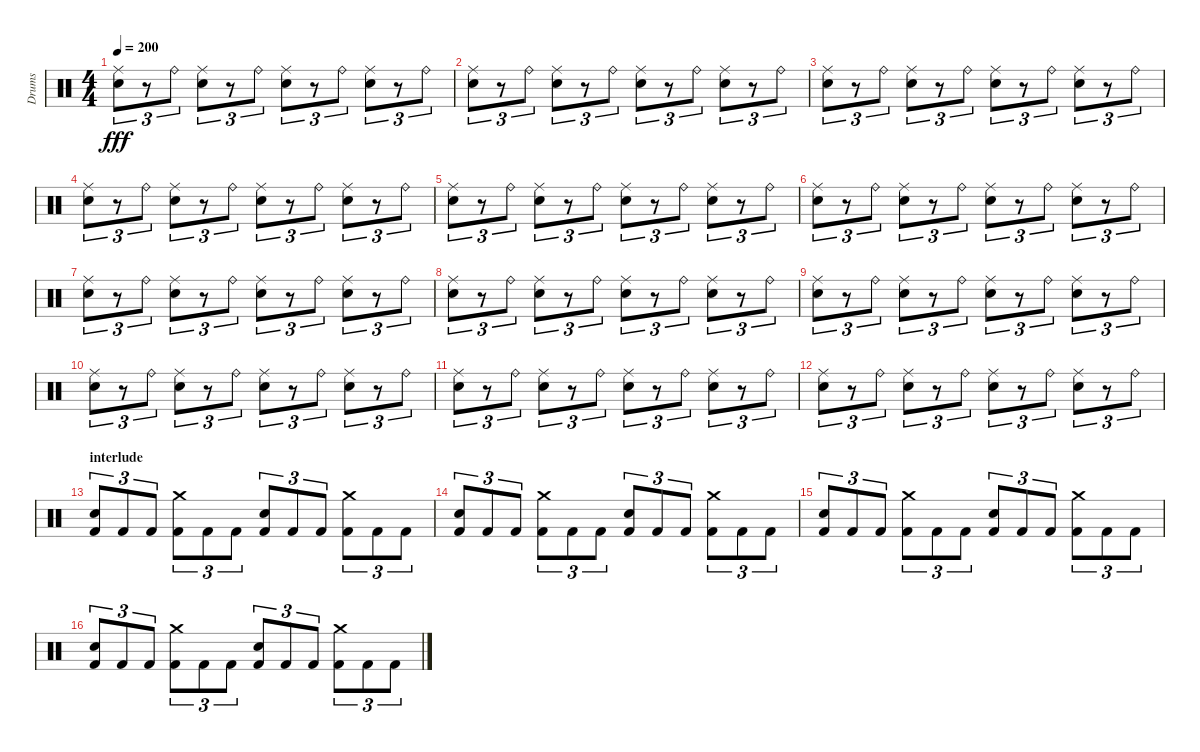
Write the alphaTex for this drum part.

\track ("Drums" "Drums") {instrument percussion}
\staff {score}
\articulation defaults
\ts (4 4)
\tempo 200
\clef neutral
\ks c
("Electric Snare (hit)" "Ride (middle)").8{tu (3 2) dy fff} r.8{tu (3 2)} "Ride (bell)".8{tu (3 2)} ("Electric Snare (hit)" "Ride (middle)").8{tu (3 2)} r.8{tu (3 2)} "Ride (bell)".8{tu (3 2)} ("Electric Snare (hit)" "Ride (middle)").8{tu (3 2)} r.8{tu (3 2)} "Ride (bell)".8{tu (3 2)} ("Electric Snare (hit)" "Ride (middle)").8{tu (3 2)} r.8{tu (3 2)} "Ride (bell)".8{tu (3 2)} |
("Electric Snare (hit)" "Ride (middle)").8{tu (3 2)} r.8{tu (3 2)} "Ride (bell)".8{tu (3 2)} ("Electric Snare (hit)" "Ride (middle)").8{tu (3 2)} r.8{tu (3 2)} "Ride (bell)".8{tu (3 2)} ("Electric Snare (hit)" "Ride (middle)").8{tu (3 2)} r.8{tu (3 2)} "Ride (bell)".8{tu (3 2)} ("Electric Snare (hit)" "Ride (middle)").8{tu (3 2)} r.8{tu (3 2)} "Ride (bell)".8{tu (3 2)} |
("Electric Snare (hit)" "Ride (middle)").8{tu (3 2)} r.8{tu (3 2)} "Ride (bell)".8{tu (3 2)} ("Electric Snare (hit)" "Ride (middle)").8{tu (3 2)} r.8{tu (3 2)} "Ride (bell)".8{tu (3 2)} ("Electric Snare (hit)" "Ride (middle)").8{tu (3 2)} r.8{tu (3 2)} "Ride (bell)".8{tu (3 2)} ("Electric Snare (hit)" "Ride (middle)").8{tu (3 2)} r.8{tu (3 2)} "Ride (bell)".8{tu (3 2)} |
("Electric Snare (hit)" "Ride (middle)").8{tu (3 2)} r.8{tu (3 2)} "Ride (bell)".8{tu (3 2)} ("Electric Snare (hit)" "Ride (middle)").8{tu (3 2)} r.8{tu (3 2)} "Ride (bell)".8{tu (3 2)} ("Electric Snare (hit)" "Ride (middle)").8{tu (3 2)} r.8{tu (3 2)} "Ride (bell)".8{tu (3 2)} ("Electric Snare (hit)" "Ride (middle)").8{tu (3 2)} r.8{tu (3 2)} "Ride (bell)".8{tu (3 2)} |
("Electric Snare (hit)" "Ride (middle)").8{tu (3 2)} r.8{tu (3 2)} "Ride (bell)".8{tu (3 2)} ("Electric Snare (hit)" "Ride (middle)").8{tu (3 2)} r.8{tu (3 2)} "Ride (bell)".8{tu (3 2)} ("Electric Snare (hit)" "Ride (middle)").8{tu (3 2)} r.8{tu (3 2)} "Ride (bell)".8{tu (3 2)} ("Electric Snare (hit)" "Ride (middle)").8{tu (3 2)} r.8{tu (3 2)} "Ride (bell)".8{tu (3 2)} |
("Electric Snare (hit)" "Ride (middle)").8{tu (3 2)} r.8{tu (3 2)} "Ride (bell)".8{tu (3 2)} ("Electric Snare (hit)" "Ride (middle)").8{tu (3 2)} r.8{tu (3 2)} "Ride (bell)".8{tu (3 2)} ("Electric Snare (hit)" "Ride (middle)").8{tu (3 2)} r.8{tu (3 2)} "Ride (bell)".8{tu (3 2)} ("Electric Snare (hit)" "Ride (middle)").8{tu (3 2)} r.8{tu (3 2)} "Ride (bell)".8{tu (3 2)} |
("Electric Snare (hit)" "Ride (middle)").8{tu (3 2)} r.8{tu (3 2)} "Ride (bell)".8{tu (3 2)} ("Electric Snare (hit)" "Ride (middle)").8{tu (3 2)} r.8{tu (3 2)} "Ride (bell)".8{tu (3 2)} ("Electric Snare (hit)" "Ride (middle)").8{tu (3 2)} r.8{tu (3 2)} "Ride (bell)".8{tu (3 2)} ("Electric Snare (hit)" "Ride (middle)").8{tu (3 2)} r.8{tu (3 2)} "Ride (bell)".8{tu (3 2)} |
("Electric Snare (hit)" "Ride (middle)").8{tu (3 2)} r.8{tu (3 2)} "Ride (bell)".8{tu (3 2)} ("Electric Snare (hit)" "Ride (middle)").8{tu (3 2)} r.8{tu (3 2)} "Ride (bell)".8{tu (3 2)} ("Electric Snare (hit)" "Ride (middle)").8{tu (3 2)} r.8{tu (3 2)} "Ride (bell)".8{tu (3 2)} ("Electric Snare (hit)" "Ride (middle)").8{tu (3 2)} r.8{tu (3 2)} "Ride (bell)".8{tu (3 2)} |
("Electric Snare (hit)" "Ride (middle)").8{tu (3 2)} r.8{tu (3 2)} "Ride (bell)".8{tu (3 2)} ("Electric Snare (hit)" "Ride (middle)").8{tu (3 2)} r.8{tu (3 2)} "Ride (bell)".8{tu (3 2)} ("Electric Snare (hit)" "Ride (middle)").8{tu (3 2)} r.8{tu (3 2)} "Ride (bell)".8{tu (3 2)} ("Electric Snare (hit)" "Ride (middle)").8{tu (3 2)} r.8{tu (3 2)} "Ride (bell)".8{tu (3 2)} |
("Electric Snare (hit)" "Ride (middle)").8{tu (3 2)} r.8{tu (3 2)} "Ride (bell)".8{tu (3 2)} ("Electric Snare (hit)" "Ride (middle)").8{tu (3 2)} r.8{tu (3 2)} "Ride (bell)".8{tu (3 2)} ("Electric Snare (hit)" "Ride (middle)").8{tu (3 2)} r.8{tu (3 2)} "Ride (bell)".8{tu (3 2)} ("Electric Snare (hit)" "Ride (middle)").8{tu (3 2)} r.8{tu (3 2)} "Ride (bell)".8{tu (3 2)} |
("Electric Snare (hit)" "Ride (middle)").8{tu (3 2)} r.8{tu (3 2)} "Ride (bell)".8{tu (3 2)} ("Electric Snare (hit)" "Ride (middle)").8{tu (3 2)} r.8{tu (3 2)} "Ride (bell)".8{tu (3 2)} ("Electric Snare (hit)" "Ride (middle)").8{tu (3 2)} r.8{tu (3 2)} "Ride (bell)".8{tu (3 2)} ("Electric Snare (hit)" "Ride (middle)").8{tu (3 2)} r.8{tu (3 2)} "Ride (bell)".8{tu (3 2)} |
("Electric Snare (hit)" "Ride (middle)").8{tu (3 2)} r.8{tu (3 2)} "Ride (bell)".8{tu (3 2)} ("Electric Snare (hit)" "Ride (middle)").8{tu (3 2)} r.8{tu (3 2)} "Ride (bell)".8{tu (3 2)} ("Electric Snare (hit)" "Ride (middle)").8{tu (3 2)} r.8{tu (3 2)} "Ride (bell)".8{tu (3 2)} ("Electric Snare (hit)" "Ride (middle)").8{tu (3 2)} r.8{tu (3 2)} "Ride (bell)".8{tu (3 2)} |
\section ("" "interlude")
("Electric Snare (hit)" "Kick (hit) 2").8{tu (3 2)} "Kick (hit) 2".8{tu (3 2)} "Kick (hit) 2".8{tu (3 2)} ("Crash medium (hit)" "Kick (hit) 2").8{tu (3 2)} "Kick (hit) 2".8{tu (3 2)} "Kick (hit) 2".8{tu (3 2)} ("Electric Snare (hit)" "Kick (hit) 2").8{tu (3 2)} "Kick (hit) 2".8{tu (3 2)} "Kick (hit) 2".8{tu (3 2)} ("Crash medium (hit)" "Kick (hit) 2").8{tu (3 2)} "Kick (hit) 2".8{tu (3 2)} "Kick (hit) 2".8{tu (3 2)} |
("Electric Snare (hit)" "Kick (hit) 2").8{tu (3 2)} "Kick (hit) 2".8{tu (3 2)} "Kick (hit) 2".8{tu (3 2)} ("Crash medium (hit)" "Kick (hit) 2").8{tu (3 2)} "Kick (hit) 2".8{tu (3 2)} "Kick (hit) 2".8{tu (3 2)} ("Electric Snare (hit)" "Kick (hit) 2").8{tu (3 2)} "Kick (hit) 2".8{tu (3 2)} "Kick (hit) 2".8{tu (3 2)} ("Crash medium (hit)" "Kick (hit) 2").8{tu (3 2)} "Kick (hit) 2".8{tu (3 2)} "Kick (hit) 2".8{tu (3 2)} |
("Electric Snare (hit)" "Kick (hit) 2").8{tu (3 2)} "Kick (hit) 2".8{tu (3 2)} "Kick (hit) 2".8{tu (3 2)} ("Crash medium (hit)" "Kick (hit) 2").8{tu (3 2)} "Kick (hit) 2".8{tu (3 2)} "Kick (hit) 2".8{tu (3 2)} ("Electric Snare (hit)" "Kick (hit) 2").8{tu (3 2)} "Kick (hit) 2".8{tu (3 2)} "Kick (hit) 2".8{tu (3 2)} ("Crash medium (hit)" "Kick (hit) 2").8{tu (3 2)} "Kick (hit) 2".8{tu (3 2)} "Kick (hit) 2".8{tu (3 2)} |
("Electric Snare (hit)" "Kick (hit) 2").8{tu (3 2)} "Kick (hit) 2".8{tu (3 2)} "Kick (hit) 2".8{tu (3 2)} ("Crash medium (hit)" "Kick (hit) 2").8{tu (3 2)} "Kick (hit) 2".8{tu (3 2)} "Kick (hit) 2".8{tu (3 2)} ("Electric Snare (hit)" "Kick (hit) 2").8{tu (3 2)} "Kick (hit) 2".8{tu (3 2)} "Kick (hit) 2".8{tu (3 2)} ("Crash medium (hit)" "Kick (hit) 2").8{tu (3 2)} "Kick (hit) 2".8{tu (3 2)} "Kick (hit) 2".8{tu (3 2)}
